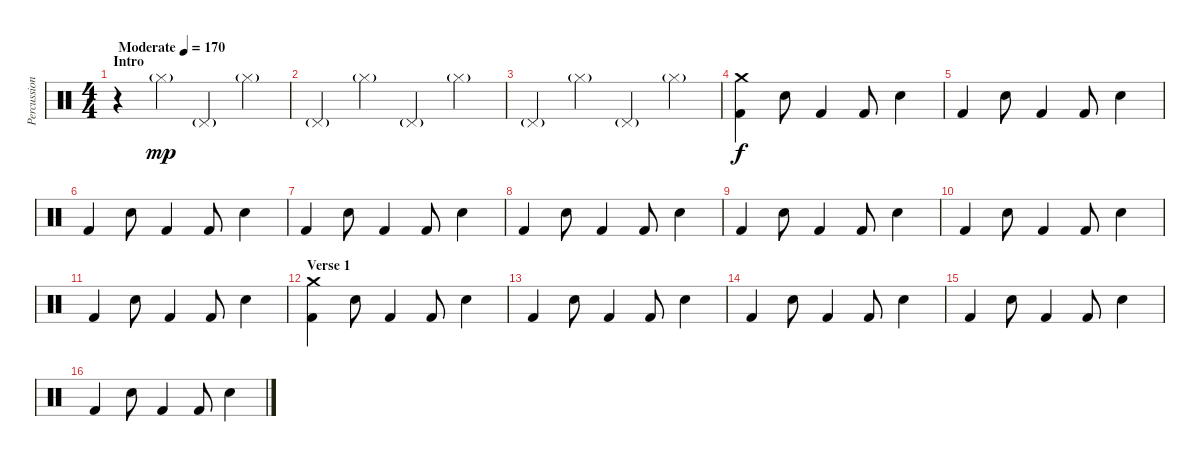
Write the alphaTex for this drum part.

\track ("Percussions" "Percussion") {instrument percussion}
\staff {score}
\articulation defaults
\ts (4 4)
\section ("" "Intro")
\tempo (170 "Moderate")
\clef neutral
\ks c
r.4{dy mp} "Hi-Hat (closed)"{g}.4 "Pedal Hi-Hat (hit)"{g}.4 "Hi-Hat (closed)"{g}.4 |
"Pedal Hi-Hat (hit)"{g}.4 "Hi-Hat (closed)"{g}.4 "Pedal Hi-Hat (hit)"{g}.4 "Hi-Hat (closed)"{g}.4 |
"Pedal Hi-Hat (hit)"{g}.4 "Hi-Hat (closed)"{g}.4 "Pedal Hi-Hat (hit)"{g}.4 "Hi-Hat (closed)"{g}.4 |
("Crash medium (hit)" "Kick (hit) 2").4{dy f} "Electric Snare (hit)".8 "Kick (hit) 2".4 "Kick (hit) 2".8 "Electric Snare (hit)".4 |
"Kick (hit) 2".4 "Electric Snare (hit)".8 "Kick (hit) 2".4 "Kick (hit) 2".8 "Electric Snare (hit)".4 |
"Kick (hit) 2".4 "Electric Snare (hit)".8 "Kick (hit) 2".4 "Kick (hit) 2".8 "Electric Snare (hit)".4 |
"Kick (hit) 2".4 "Electric Snare (hit)".8 "Kick (hit) 2".4 "Kick (hit) 2".8 "Electric Snare (hit)".4 |
"Kick (hit) 2".4 "Electric Snare (hit)".8 "Kick (hit) 2".4 "Kick (hit) 2".8 "Electric Snare (hit)".4 |
"Kick (hit) 2".4 "Electric Snare (hit)".8 "Kick (hit) 2".4 "Kick (hit) 2".8 "Electric Snare (hit)".4 |
"Kick (hit) 2".4 "Electric Snare (hit)".8 "Kick (hit) 2".4 "Kick (hit) 2".8 "Electric Snare (hit)".4 |
"Kick (hit) 2".4 "Electric Snare (hit)".8 "Kick (hit) 2".4 "Kick (hit) 2".8 "Electric Snare (hit)".4 |
\section ("" "Verse 1")
("Crash medium (hit)" "Kick (hit) 2").4 "Electric Snare (hit)".8 "Kick (hit) 2".4 "Kick (hit) 2".8 "Electric Snare (hit)".4 |
"Kick (hit) 2".4 "Electric Snare (hit)".8 "Kick (hit) 2".4 "Kick (hit) 2".8 "Electric Snare (hit)".4 |
"Kick (hit) 2".4 "Electric Snare (hit)".8 "Kick (hit) 2".4 "Kick (hit) 2".8 "Electric Snare (hit)".4 |
"Kick (hit) 2".4 "Electric Snare (hit)".8 "Kick (hit) 2".4 "Kick (hit) 2".8 "Electric Snare (hit)".4 |
"Kick (hit) 2".4 "Electric Snare (hit)".8 "Kick (hit) 2".4 "Kick (hit) 2".8 "Electric Snare (hit)".4
